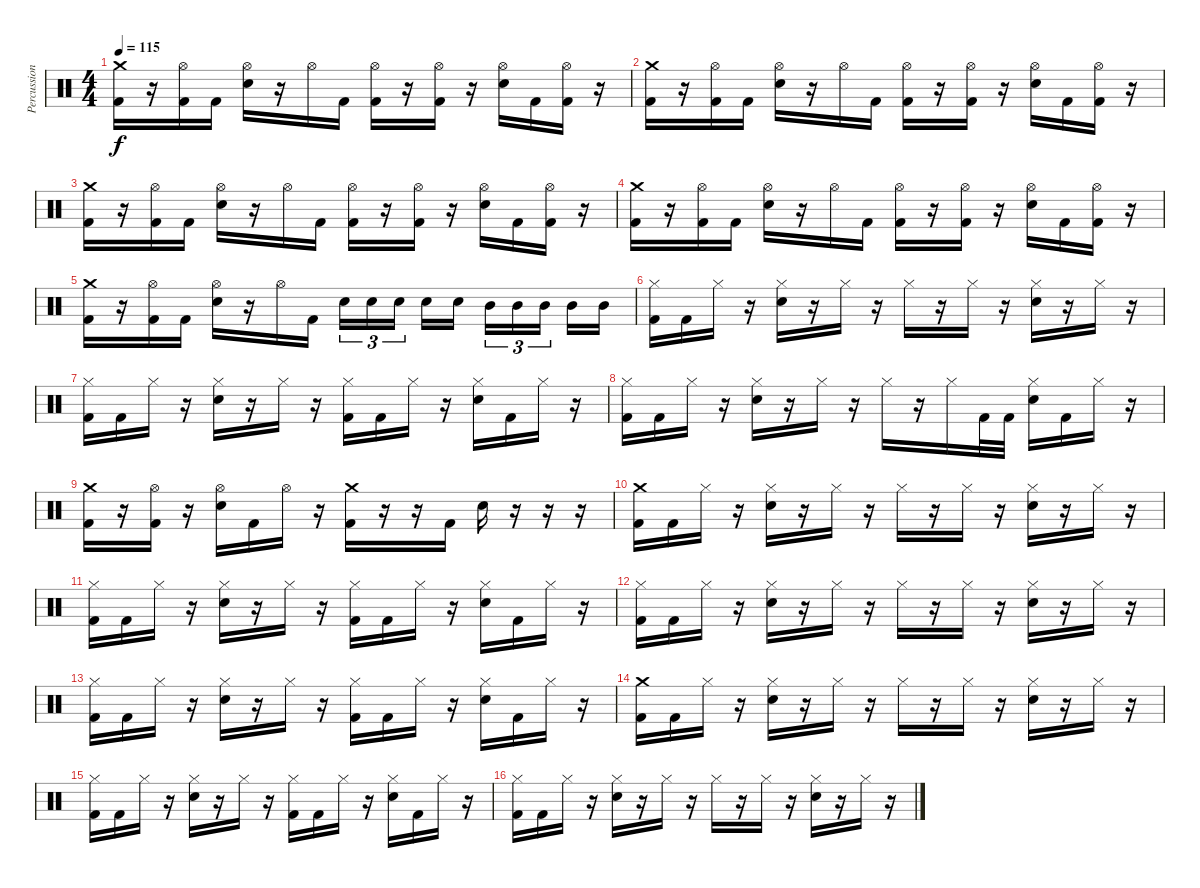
\track ("Percussion" "Percussion") {instrument percussion}
\staff {score}
\articulation defaults
\ts (4 4)
\tempo 115
\clef neutral
\ks c
("Crash medium (hit)" "Kick (hit) 2").16{dy f} r.16 ("Hi-Hat (open)" "Kick (hit) 2").16 "Kick (hit) 2".16 ("Hi-Hat (open)" "Electric Snare (hit)").16 r.16 "Hi-Hat (open)".16 "Kick (hit) 2".16 ("Hi-Hat (open)" "Kick (hit) 2").16 r.16 ("Hi-Hat (open)" "Kick (hit) 2").16 r.16 ("Hi-Hat (open)" "Electric Snare (hit)").16 "Kick (hit) 2".16 ("Hi-Hat (open)" "Kick (hit) 2").16 r.16 |
("Crash medium (hit)" "Kick (hit) 2").16 r.16 ("Hi-Hat (open)" "Kick (hit) 2").16 "Kick (hit) 2".16 ("Hi-Hat (open)" "Electric Snare (hit)").16 r.16 "Hi-Hat (open)".16 "Kick (hit) 2".16 ("Hi-Hat (open)" "Kick (hit) 2").16 r.16 ("Hi-Hat (open)" "Kick (hit) 2").16 r.16 ("Hi-Hat (open)" "Electric Snare (hit)").16 "Kick (hit) 2".16 ("Hi-Hat (open)" "Kick (hit) 2").16 r.16 |
("Crash medium (hit)" "Kick (hit) 2").16 r.16 ("Hi-Hat (open)" "Kick (hit) 2").16 "Kick (hit) 2".16 ("Hi-Hat (open)" "Electric Snare (hit)").16 r.16 "Hi-Hat (open)".16 "Kick (hit) 2".16 ("Hi-Hat (open)" "Kick (hit) 2").16 r.16 ("Hi-Hat (open)" "Kick (hit) 2").16 r.16 ("Hi-Hat (open)" "Electric Snare (hit)").16 "Kick (hit) 2".16 ("Hi-Hat (open)" "Kick (hit) 2").16 r.16 |
("Crash medium (hit)" "Kick (hit) 2").16 r.16 ("Hi-Hat (open)" "Kick (hit) 2").16 "Kick (hit) 2".16 ("Hi-Hat (open)" "Electric Snare (hit)").16 r.16 "Hi-Hat (open)".16 "Kick (hit) 2".16 ("Hi-Hat (open)" "Kick (hit) 2").16 r.16 ("Hi-Hat (open)" "Kick (hit) 2").16 r.16 ("Hi-Hat (open)" "Electric Snare (hit)").16 "Kick (hit) 2".16 ("Hi-Hat (open)" "Kick (hit) 2").16 r.16 |
("Crash medium (hit)" "Kick (hit) 2").16 r.16 ("Hi-Hat (open)" "Kick (hit) 2").16 "Kick (hit) 2".16 ("Hi-Hat (open)" "Electric Snare (hit)").16 r.16 "Hi-Hat (open)".16 "Kick (hit) 2".16 "Electric Snare (hit)".16{tu (3 2)} "Electric Snare (hit)".16{tu (3 2)} "Electric Snare (hit)".16{tu (3 2)} "Electric Snare (hit)".16 "Electric Snare (hit)".16 "Mid Tom (hit)".16{tu (3 2)} "Mid Tom (hit)".16{tu (3 2)} "Mid Tom (hit)".16{tu (3 2)} "Mid Tom (hit)".16 "Mid Tom (hit)".16 |
("Hi-Hat (closed)" "Kick (hit) 2").16 "Kick (hit) 2".16 "Hi-Hat (closed)".16 r.16 ("Hi-Hat (closed)" "Electric Snare (hit)").16 r.16 "Hi-Hat (closed)".16 r.16 "Hi-Hat (closed)".16 r.16 "Hi-Hat (closed)".16 r.16 ("Hi-Hat (closed)" "Electric Snare (hit)").16 r.16 "Hi-Hat (closed)".16 r.16 |
("Hi-Hat (closed)" "Kick (hit) 2").16 "Kick (hit) 2".16 "Hi-Hat (closed)".16 r.16 ("Hi-Hat (closed)" "Electric Snare (hit)").16 r.16 "Hi-Hat (closed)".16 r.16 ("Hi-Hat (closed)" "Kick (hit) 2").16 "Kick (hit) 2".16 "Hi-Hat (closed)".16 r.16 ("Hi-Hat (closed)" "Electric Snare (hit)").16 "Kick (hit) 2".16 "Hi-Hat (closed)".16 r.16 |
("Hi-Hat (closed)" "Kick (hit) 2").16 "Kick (hit) 2".16 "Hi-Hat (closed)".16 r.16 ("Hi-Hat (closed)" "Electric Snare (hit)").16 r.16 "Hi-Hat (closed)".16 r.16 "Hi-Hat (closed)".16 r.16 "Hi-Hat (closed)".16 "Kick (hit) 2".32 "Kick (hit) 2".32 ("Hi-Hat (closed)" "Electric Snare (hit)").16 "Kick (hit) 2".16 "Hi-Hat (closed)".16 r.16 |
("Crash medium (hit)" "Kick (hit) 2").16 r.16 ("Hi-Hat (open)" "Kick (hit) 2").16 r.16 ("Hi-Hat (open)" "Electric Snare (hit)").16 "Kick (hit) 2".16 "Hi-Hat (open)".16 r.16 ("Crash medium (hit)" "Kick (hit) 2").16 r.16 r.16 "Kick (hit) 2".16 "Electric Snare (hit)".16 r.16 r.16 r.16 |
("Crash medium (hit)" "Kick (hit) 2").16 "Kick (hit) 2".16 "Hi-Hat (closed)".16 r.16 ("Hi-Hat (closed)" "Electric Snare (hit)").16 r.16 "Hi-Hat (closed)".16 r.16 "Hi-Hat (closed)".16 r.16 "Hi-Hat (closed)".16 r.16 ("Hi-Hat (closed)" "Electric Snare (hit)").16 r.16 "Hi-Hat (closed)".16 r.16 |
("Hi-Hat (closed)" "Kick (hit) 2").16 "Kick (hit) 2".16 "Hi-Hat (closed)".16 r.16 ("Hi-Hat (closed)" "Electric Snare (hit)").16 r.16 "Hi-Hat (closed)".16 r.16 ("Hi-Hat (closed)" "Kick (hit) 2").16 "Kick (hit) 2".16 "Hi-Hat (closed)".16 r.16 ("Hi-Hat (closed)" "Electric Snare (hit)").16 "Kick (hit) 2".16 "Hi-Hat (closed)".16 r.16 |
("Hi-Hat (closed)" "Kick (hit) 2").16 "Kick (hit) 2".16 "Hi-Hat (closed)".16 r.16 ("Hi-Hat (closed)" "Electric Snare (hit)").16 r.16 "Hi-Hat (closed)".16 r.16 "Hi-Hat (closed)".16 r.16 "Hi-Hat (closed)".16 r.16 ("Hi-Hat (closed)" "Electric Snare (hit)").16 r.16 "Hi-Hat (closed)".16 r.16 |
("Hi-Hat (closed)" "Kick (hit) 2").16 "Kick (hit) 2".16 "Hi-Hat (closed)".16 r.16 ("Hi-Hat (closed)" "Electric Snare (hit)").16 r.16 "Hi-Hat (closed)".16 r.16 ("Hi-Hat (closed)" "Kick (hit) 2").16 "Kick (hit) 2".16 "Hi-Hat (closed)".16 r.16 ("Hi-Hat (closed)" "Electric Snare (hit)").16 "Kick (hit) 2".16 "Hi-Hat (closed)".16 r.16 |
("Crash medium (hit)" "Kick (hit) 2").16 "Kick (hit) 2".16 "Hi-Hat (closed)".16 r.16 ("Hi-Hat (closed)" "Electric Snare (hit)").16 r.16 "Hi-Hat (closed)".16 r.16 "Hi-Hat (closed)".16 r.16 "Hi-Hat (closed)".16 r.16 ("Hi-Hat (closed)" "Electric Snare (hit)").16 r.16 "Hi-Hat (closed)".16 r.16 |
("Hi-Hat (closed)" "Kick (hit) 2").16 "Kick (hit) 2".16 "Hi-Hat (closed)".16 r.16 ("Hi-Hat (closed)" "Electric Snare (hit)").16 r.16 "Hi-Hat (closed)".16 r.16 ("Hi-Hat (closed)" "Kick (hit) 2").16 "Kick (hit) 2".16 "Hi-Hat (closed)".16 r.16 ("Hi-Hat (closed)" "Electric Snare (hit)").16 "Kick (hit) 2".16 "Hi-Hat (closed)".16 r.16 |
("Hi-Hat (closed)" "Kick (hit) 2").16 "Kick (hit) 2".16 "Hi-Hat (closed)".16 r.16 ("Hi-Hat (closed)" "Electric Snare (hit)").16 r.16 "Hi-Hat (closed)".16 r.16 "Hi-Hat (closed)".16 r.16 "Hi-Hat (closed)".16 r.16 ("Hi-Hat (closed)" "Electric Snare (hit)").16 r.16 "Hi-Hat (closed)".16 r.16
